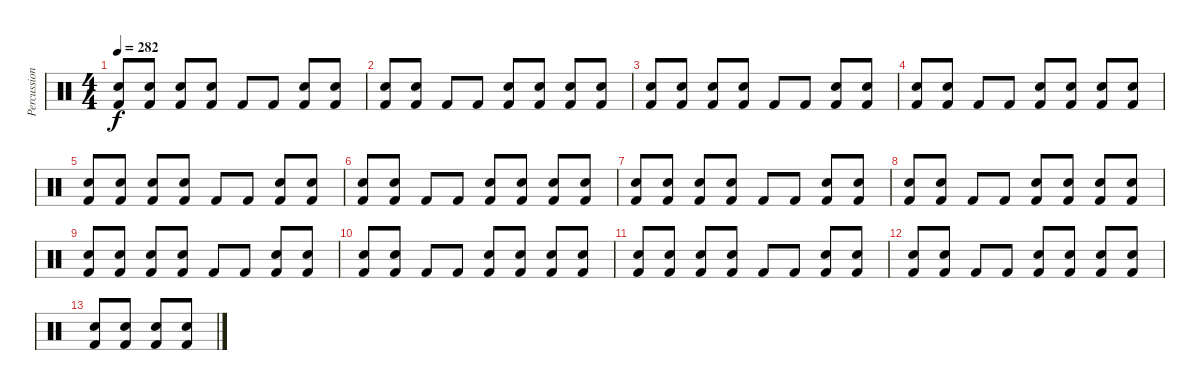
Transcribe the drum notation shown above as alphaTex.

\track ("Percussion" "Percussion") {instrument percussion}
\staff {score}
\articulation defaults
\ts (4 4)
\tempo 282
\clef neutral
\ks c
("Kick (hit) 2" "Snare (hit) 2").8{dy f} ("Kick (hit) 2" "Snare (hit) 2").8 ("Kick (hit) 2" "Snare (hit) 2").8 ("Kick (hit) 2" "Snare (hit) 2").8 "Kick (hit) 2".8 "Kick (hit) 2".8 ("Kick (hit) 2" "Snare (hit) 2").8 ("Kick (hit) 2" "Snare (hit) 2").8 |
("Kick (hit) 2" "Snare (hit) 2").8 ("Kick (hit) 2" "Snare (hit) 2").8 "Kick (hit) 2".8 "Kick (hit) 2".8 ("Kick (hit) 2" "Snare (hit) 2").8 ("Kick (hit) 2" "Snare (hit) 2").8 ("Kick (hit) 2" "Snare (hit) 2").8 ("Kick (hit) 2" "Snare (hit) 2").8 |
("Kick (hit) 2" "Snare (hit) 2").8 ("Kick (hit) 2" "Snare (hit) 2").8 ("Kick (hit) 2" "Snare (hit) 2").8 ("Kick (hit) 2" "Snare (hit) 2").8 "Kick (hit) 2".8 "Kick (hit) 2".8 ("Kick (hit) 2" "Snare (hit) 2").8 ("Kick (hit) 2" "Snare (hit) 2").8 |
("Kick (hit) 2" "Snare (hit) 2").8 ("Kick (hit) 2" "Snare (hit) 2").8 "Kick (hit) 2".8 "Kick (hit) 2".8 ("Kick (hit) 2" "Snare (hit) 2").8 ("Kick (hit) 2" "Snare (hit) 2").8 ("Kick (hit) 2" "Snare (hit) 2").8 ("Kick (hit) 2" "Snare (hit) 2").8 |
("Kick (hit) 2" "Snare (hit) 2").8 ("Kick (hit) 2" "Snare (hit) 2").8 ("Kick (hit) 2" "Snare (hit) 2").8 ("Kick (hit) 2" "Snare (hit) 2").8 "Kick (hit) 2".8 "Kick (hit) 2".8 ("Kick (hit) 2" "Snare (hit) 2").8 ("Kick (hit) 2" "Snare (hit) 2").8 |
("Kick (hit) 2" "Snare (hit) 2").8 ("Kick (hit) 2" "Snare (hit) 2").8 "Kick (hit) 2".8 "Kick (hit) 2".8 ("Kick (hit) 2" "Snare (hit) 2").8 ("Kick (hit) 2" "Snare (hit) 2").8 ("Kick (hit) 2" "Snare (hit) 2").8 ("Kick (hit) 2" "Snare (hit) 2").8 |
("Kick (hit) 2" "Snare (hit) 2").8 ("Kick (hit) 2" "Snare (hit) 2").8 ("Kick (hit) 2" "Snare (hit) 2").8 ("Kick (hit) 2" "Snare (hit) 2").8 "Kick (hit) 2".8 "Kick (hit) 2".8 ("Kick (hit) 2" "Snare (hit) 2").8 ("Kick (hit) 2" "Snare (hit) 2").8 |
("Kick (hit) 2" "Snare (hit) 2").8 ("Kick (hit) 2" "Snare (hit) 2").8 "Kick (hit) 2".8 "Kick (hit) 2".8 ("Kick (hit) 2" "Snare (hit) 2").8 ("Kick (hit) 2" "Snare (hit) 2").8 ("Kick (hit) 2" "Snare (hit) 2").8 ("Kick (hit) 2" "Snare (hit) 2").8 |
("Kick (hit) 2" "Snare (hit) 2").8 ("Kick (hit) 2" "Snare (hit) 2").8 ("Kick (hit) 2" "Snare (hit) 2").8 ("Kick (hit) 2" "Snare (hit) 2").8 "Kick (hit) 2".8 "Kick (hit) 2".8 ("Kick (hit) 2" "Snare (hit) 2").8 ("Kick (hit) 2" "Snare (hit) 2").8 |
("Kick (hit) 2" "Snare (hit) 2").8 ("Kick (hit) 2" "Snare (hit) 2").8 "Kick (hit) 2".8 "Kick (hit) 2".8 ("Kick (hit) 2" "Snare (hit) 2").8 ("Kick (hit) 2" "Snare (hit) 2").8 ("Kick (hit) 2" "Snare (hit) 2").8 ("Kick (hit) 2" "Snare (hit) 2").8 |
("Kick (hit) 2" "Snare (hit) 2").8 ("Kick (hit) 2" "Snare (hit) 2").8 ("Kick (hit) 2" "Snare (hit) 2").8 ("Kick (hit) 2" "Snare (hit) 2").8 "Kick (hit) 2".8 "Kick (hit) 2".8 ("Kick (hit) 2" "Snare (hit) 2").8 ("Kick (hit) 2" "Snare (hit) 2").8 |
("Kick (hit) 2" "Snare (hit) 2").8 ("Kick (hit) 2" "Snare (hit) 2").8 "Kick (hit) 2".8 "Kick (hit) 2".8 ("Kick (hit) 2" "Snare (hit) 2").8 ("Kick (hit) 2" "Snare (hit) 2").8 ("Kick (hit) 2" "Snare (hit) 2").8 ("Kick (hit) 2" "Snare (hit) 2").8 |
("Kick (hit) 2" "Snare (hit) 2").8 ("Kick (hit) 2" "Snare (hit) 2").8 ("Kick (hit) 2" "Snare (hit) 2").8 ("Kick (hit) 2" "Snare (hit) 2").8
